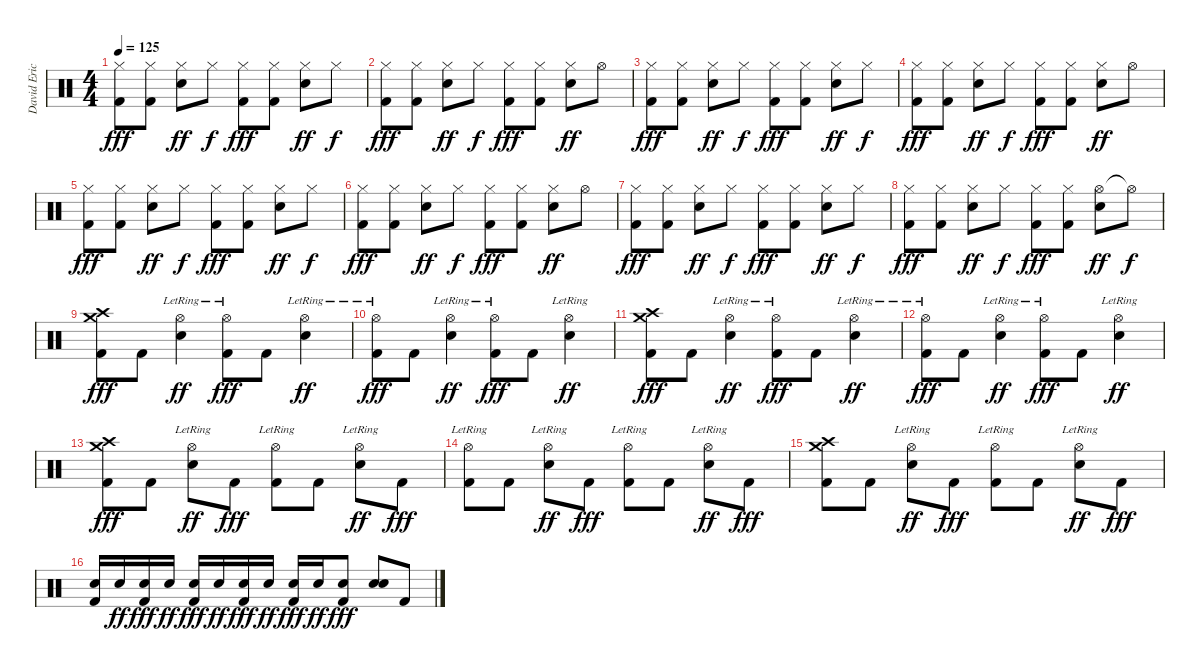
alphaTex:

\track ("David Eric Grohl" "David Eric") {instrument percussion}
\staff {score}
\articulation defaults
\ts (4 4)
\tempo 125
\clef neutral
\ks c
("Hi-Hat (closed)" "Kick (hit) 2").8{dy fff} ("Hi-Hat (closed)" "Kick (hit) 2").8 ("Hi-Hat (closed)" "Electric Snare (hit)").8{dy ff} "Hi-Hat (closed)".8{dy f} ("Hi-Hat (closed)" "Kick (hit) 2").8{dy fff} ("Hi-Hat (closed)" "Kick (hit) 2").8 ("Hi-Hat (closed)" "Electric Snare (hit)").8{dy ff} "Hi-Hat (closed)".8{dy f} |
("Hi-Hat (closed)" "Kick (hit) 2").8{dy fff} ("Hi-Hat (closed)" "Kick (hit) 2").8 ("Hi-Hat (closed)" "Electric Snare (hit)").8{dy ff} "Hi-Hat (closed)".8{dy f} ("Hi-Hat (closed)" "Kick (hit) 2").8{dy fff} ("Hi-Hat (closed)" "Kick (hit) 2").8 ("Hi-Hat (closed)" "Electric Snare (hit)").8{dy ff} "Hi-Hat (open)".8 |
("Hi-Hat (closed)" "Kick (hit) 2").8{dy fff} ("Hi-Hat (closed)" "Kick (hit) 2").8 ("Hi-Hat (closed)" "Electric Snare (hit)").8{dy ff} "Hi-Hat (closed)".8{dy f} ("Hi-Hat (closed)" "Kick (hit) 2").8{dy fff} ("Hi-Hat (closed)" "Kick (hit) 2").8 ("Hi-Hat (closed)" "Electric Snare (hit)").8{dy ff} "Hi-Hat (closed)".8{dy f} |
("Hi-Hat (closed)" "Kick (hit) 2").8{dy fff} ("Hi-Hat (closed)" "Kick (hit) 2").8 ("Hi-Hat (closed)" "Electric Snare (hit)").8{dy ff} "Hi-Hat (closed)".8{dy f} ("Hi-Hat (closed)" "Kick (hit) 2").8{dy fff} ("Hi-Hat (closed)" "Kick (hit) 2").8 ("Hi-Hat (closed)" "Electric Snare (hit)").8{dy ff} "Hi-Hat (open)".8 |
("Hi-Hat (closed)" "Kick (hit) 2").8{dy fff} ("Hi-Hat (closed)" "Kick (hit) 2").8 ("Hi-Hat (closed)" "Electric Snare (hit)").8{dy ff} "Hi-Hat (closed)".8{dy f} ("Hi-Hat (closed)" "Kick (hit) 2").8{dy fff} ("Hi-Hat (closed)" "Kick (hit) 2").8 ("Hi-Hat (closed)" "Electric Snare (hit)").8{dy ff} "Hi-Hat (closed)".8{dy f} |
("Hi-Hat (closed)" "Kick (hit) 2").8{dy fff} ("Hi-Hat (closed)" "Kick (hit) 2").8 ("Hi-Hat (closed)" "Electric Snare (hit)").8{dy ff} "Hi-Hat (closed)".8{dy f} ("Hi-Hat (closed)" "Kick (hit) 2").8{dy fff} ("Hi-Hat (closed)" "Kick (hit) 2").8 ("Hi-Hat (closed)" "Electric Snare (hit)").8{dy ff} "Hi-Hat (open)".8 |
("Hi-Hat (closed)" "Kick (hit) 2").8{dy fff} ("Hi-Hat (closed)" "Kick (hit) 2").8 ("Hi-Hat (closed)" "Electric Snare (hit)").8{dy ff} "Hi-Hat (closed)".8{dy f} ("Hi-Hat (closed)" "Kick (hit) 2").8{dy fff} ("Hi-Hat (closed)" "Kick (hit) 2").8 ("Hi-Hat (closed)" "Electric Snare (hit)").8{dy ff} "Hi-Hat (closed)".8{dy f} |
("Hi-Hat (closed)" "Kick (hit) 2").8{dy fff} ("Hi-Hat (closed)" "Kick (hit) 2").8 ("Hi-Hat (closed)" "Electric Snare (hit)").8{dy ff} "Hi-Hat (closed)".8{dy f} ("Hi-Hat (closed)" "Kick (hit) 2").8{dy fff} ("Hi-Hat (closed)" "Kick (hit) 2").8 ("Hi-Hat (open)" "Electric Snare (hit)").8{dy ff} "Hi-Hat (open)"{t}.8{dy f} |
("Crash high (hit)" "Crash medium (hit)" "Kick (hit) 2").8{dy fff} "Kick (hit) 2".8 ("Hi-Hat (open)"{lr} "Electric Snare (hit)").4{dy ff} ("Hi-Hat (open)"{lr} "Kick (hit) 2").8{dy fff} "Kick (hit) 2".8 ("Hi-Hat (open)"{lr} "Electric Snare (hit)").4{dy ff} |
("Hi-Hat (open)"{lr} "Kick (hit) 2").8{dy fff} "Kick (hit) 2".8 ("Hi-Hat (open)"{lr} "Electric Snare (hit)").4{dy ff} ("Hi-Hat (open)"{lr} "Kick (hit) 2").8{dy fff} "Kick (hit) 2".8 ("Hi-Hat (open)"{lr} "Electric Snare (hit)").4{dy ff} |
("Crash high (hit)" "Crash medium (hit)" "Kick (hit) 2").8{dy fff} "Kick (hit) 2".8 ("Hi-Hat (open)"{lr} "Electric Snare (hit)").4{dy ff} ("Hi-Hat (open)"{lr} "Kick (hit) 2").8{dy fff} "Kick (hit) 2".8 ("Hi-Hat (open)"{lr} "Electric Snare (hit)").4{dy ff} |
("Hi-Hat (open)"{lr} "Kick (hit) 2").8{dy fff} "Kick (hit) 2".8 ("Hi-Hat (open)"{lr} "Electric Snare (hit)").4{dy ff} ("Hi-Hat (open)"{lr} "Kick (hit) 2").8{dy fff} "Kick (hit) 2".8 ("Hi-Hat (open)"{lr} "Electric Snare (hit)").4{dy ff} |
("Crash high (hit)" "Crash medium (hit)" "Kick (hit) 2").8{dy fff} "Kick (hit) 2".8 ("Hi-Hat (open)"{lr} "Electric Snare (hit)").8{dy ff} "Kick (hit) 2".8{dy fff} ("Hi-Hat (open)"{lr} "Kick (hit) 2").8 "Kick (hit) 2".8 ("Hi-Hat (open)"{lr} "Electric Snare (hit)").8{dy ff} "Kick (hit) 2".8{dy fff} |
("Hi-Hat (open)"{lr} "Kick (hit) 2").8 "Kick (hit) 2".8 ("Hi-Hat (open)"{lr} "Electric Snare (hit)").8{dy ff} "Kick (hit) 2".8{dy fff} ("Hi-Hat (open)"{lr} "Kick (hit) 2").8 "Kick (hit) 2".8 ("Hi-Hat (open)"{lr} "Electric Snare (hit)").8{dy ff} "Kick (hit) 2".8{dy fff} |
("Crash high (hit)" "Crash medium (hit)" "Kick (hit) 2").8 "Kick (hit) 2".8 ("Hi-Hat (open)"{lr} "Electric Snare (hit)").8{dy ff} "Kick (hit) 2".8{dy fff} ("Hi-Hat (open)"{lr} "Kick (hit) 2").8 "Kick (hit) 2".8 ("Hi-Hat (open)"{lr} "Electric Snare (hit)").8{dy ff} "Kick (hit) 2".8{dy fff} |
("Electric Snare (hit)" "Kick (hit) 2").16 "Electric Snare (hit)".16{dy ff} ("Electric Snare (hit)" "Kick (hit) 2").16{dy fff} "Electric Snare (hit)".16{dy ff} ("Electric Snare (hit)" "Kick (hit) 2").16{dy fff} "Electric Snare (hit)".16{dy ff} ("Electric Snare (hit)" "Kick (hit) 2").16{dy fff} "Electric Snare (hit)".16{dy ff} ("Electric Snare (hit)" "Kick (hit) 2").16{dy fff} "Electric Snare (hit)".16{dy ff} ("Electric Snare (hit)" "Kick (hit) 2").8{dy fff} ("Electric Snare (hit)" "Electric Snare (hit)").8 "Kick (hit) 2".8
